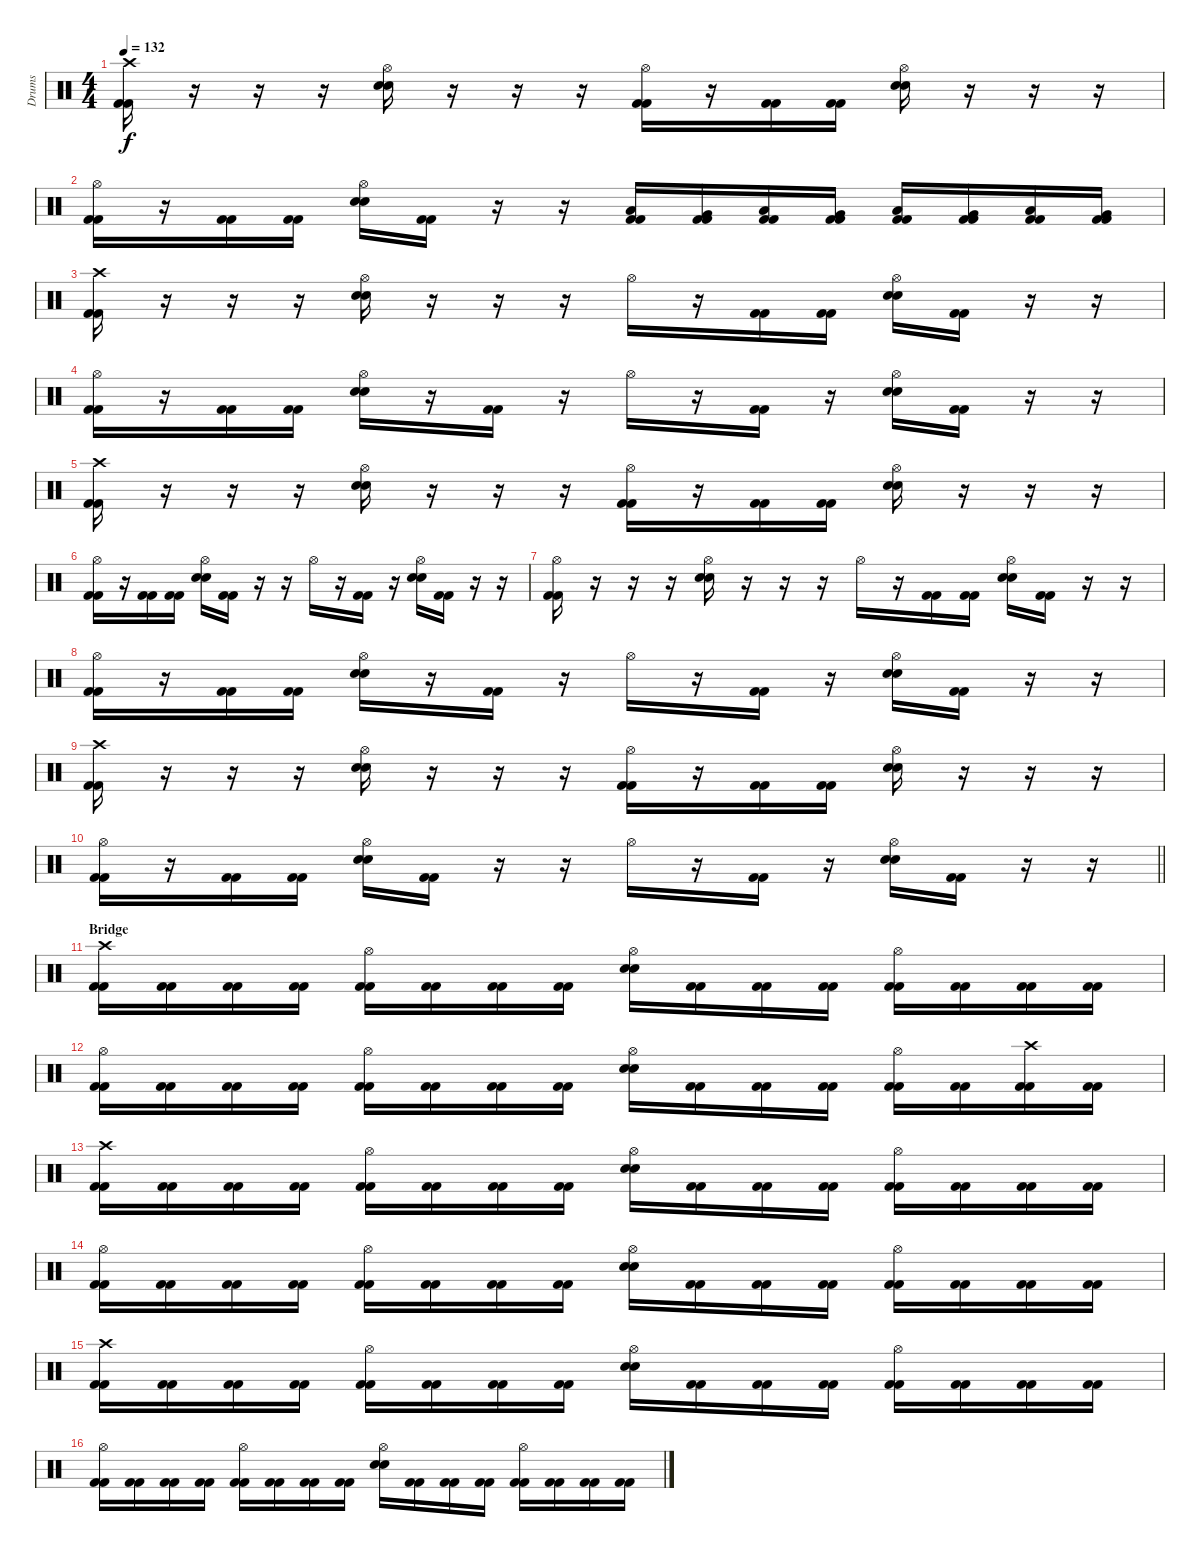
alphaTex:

\track ("Drums" "Drums") {instrument percussion}
\staff {score}
\articulation defaults
\ts (4 4)
\tempo 132
\clef neutral
\ks c
("Crash high (hit)" "Kick (hit) 2" "Kick (hit) 2").16{dy f} r.16 r.16 r.16 ("Hi-Hat (open)" "Snare (hit) 2" "Snare (hit) 2").16 r.16 r.16 r.16 ("Hi-Hat (open)" "Kick (hit) 2" "Kick (hit) 2").16 r.16 ("Kick (hit) 2" "Kick (hit) 2").16 ("Kick (hit) 2" "Kick (hit) 2").16 ("Hi-Hat (open)" "Snare (hit) 2" "Snare (hit) 2").16 r.16 r.16 r.16 |
("Hi-Hat (open)" "Kick (hit) 2" "Kick (hit) 2").16 r.16 ("Kick (hit) 2" "Kick (hit) 2").16 ("Kick (hit) 2" "Kick (hit) 2").16 ("Hi-Hat (open)" "Snare (hit) 2" "Snare (hit) 2").16 ("Kick (hit) 2" "Kick (hit) 2").16 r.16 r.16 ("Low Tom (hit)" "Kick (hit) 2" "Kick (hit) 2").16 ("Very Low Tom (hit)" "Kick (hit) 2" "Kick (hit) 2").16 ("Low Tom (hit)" "Kick (hit) 2" "Kick (hit) 2").16 ("Very Low Tom (hit)" "Kick (hit) 2" "Kick (hit) 2").16 ("Low Tom (hit)" "Kick (hit) 2" "Kick (hit) 2").16 ("Very Low Tom (hit)" "Kick (hit) 2" "Kick (hit) 2").16 ("Low Tom (hit)" "Kick (hit) 2" "Kick (hit) 2").16 ("Very Low Tom (hit)" "Kick (hit) 2" "Kick (hit) 2").16 |
("Crash high (hit)" "Kick (hit) 2" "Kick (hit) 2").16 r.16 r.16 r.16 ("Hi-Hat (open)" "Snare (hit) 2" "Snare (hit) 2").16 r.16 r.16 r.16 "Hi-Hat (open)".16 r.16 ("Kick (hit) 2" "Kick (hit) 2").16 ("Kick (hit) 2" "Kick (hit) 2").16 ("Hi-Hat (open)" "Snare (hit) 2" "Snare (hit) 2").16 ("Kick (hit) 2" "Kick (hit) 2").16 r.16 r.16 |
("Hi-Hat (open)" "Kick (hit) 2" "Kick (hit) 2").16 r.16 ("Kick (hit) 2" "Kick (hit) 2").16 ("Kick (hit) 2" "Kick (hit) 2").16 ("Hi-Hat (open)" "Snare (hit) 2" "Snare (hit) 2").16 r.16 ("Kick (hit) 2" "Kick (hit) 2").16 r.16 "Hi-Hat (open)".16 r.16 ("Kick (hit) 2" "Kick (hit) 2").16 r.16 ("Hi-Hat (open)" "Snare (hit) 2" "Snare (hit) 2").16 ("Kick (hit) 2" "Kick (hit) 2").16 r.16 r.16 |
("Crash high (hit)" "Kick (hit) 2" "Kick (hit) 2").16 r.16 r.16 r.16 ("Hi-Hat (open)" "Snare (hit) 2" "Snare (hit) 2").16 r.16 r.16 r.16 ("Hi-Hat (open)" "Kick (hit) 2" "Kick (hit) 2").16 r.16 ("Kick (hit) 2" "Kick (hit) 2").16 ("Kick (hit) 2" "Kick (hit) 2").16 ("Hi-Hat (open)" "Snare (hit) 2" "Snare (hit) 2").16 r.16 r.16 r.16 |
("Hi-Hat (open)" "Kick (hit) 2" "Kick (hit) 2").16 r.16 ("Kick (hit) 2" "Kick (hit) 2").16 ("Kick (hit) 2" "Kick (hit) 2").16 ("Hi-Hat (open)" "Snare (hit) 2" "Snare (hit) 2").16 ("Kick (hit) 2" "Kick (hit) 2").16 r.16 r.16 "Hi-Hat (open)".16 r.16 ("Kick (hit) 2" "Kick (hit) 2").16 r.16 ("Hi-Hat (open)" "Snare (hit) 2" "Snare (hit) 2").16 ("Kick (hit) 2" "Kick (hit) 2").16 r.16 r.16 |
("Hi-Hat (open)" "Kick (hit) 2" "Kick (hit) 2").16 r.16 r.16 r.16 ("Hi-Hat (open)" "Snare (hit) 2" "Snare (hit) 2").16 r.16 r.16 r.16 "Hi-Hat (open)".16 r.16 ("Kick (hit) 2" "Kick (hit) 2").16 ("Kick (hit) 2" "Kick (hit) 2").16 ("Hi-Hat (open)" "Snare (hit) 2" "Snare (hit) 2").16 ("Kick (hit) 2" "Kick (hit) 2").16 r.16 r.16 |
("Hi-Hat (open)" "Kick (hit) 2" "Kick (hit) 2").16 r.16 ("Kick (hit) 2" "Kick (hit) 2").16 ("Kick (hit) 2" "Kick (hit) 2").16 ("Hi-Hat (open)" "Snare (hit) 2" "Snare (hit) 2").16 r.16 ("Kick (hit) 2" "Kick (hit) 2").16 r.16 "Hi-Hat (open)".16 r.16 ("Kick (hit) 2" "Kick (hit) 2").16 r.16 ("Hi-Hat (open)" "Snare (hit) 2" "Snare (hit) 2").16 ("Kick (hit) 2" "Kick (hit) 2").16 r.16 r.16 |
("Crash high (hit)" "Kick (hit) 2" "Kick (hit) 2").16 r.16 r.16 r.16 ("Hi-Hat (open)" "Snare (hit) 2" "Snare (hit) 2").16 r.16 r.16 r.16 ("Hi-Hat (open)" "Kick (hit) 2" "Kick (hit) 2").16 r.16 ("Kick (hit) 2" "Kick (hit) 2").16 ("Kick (hit) 2" "Kick (hit) 2").16 ("Hi-Hat (open)" "Snare (hit) 2" "Snare (hit) 2").16 r.16 r.16 r.16 |
\barLineRight lightlight
("Hi-Hat (open)" "Kick (hit) 2" "Kick (hit) 2").16 r.16 ("Kick (hit) 2" "Kick (hit) 2").16 ("Kick (hit) 2" "Kick (hit) 2").16 ("Hi-Hat (open)" "Snare (hit) 2" "Snare (hit) 2").16 ("Kick (hit) 2" "Kick (hit) 2").16 r.16 r.16 "Hi-Hat (open)".16 r.16 ("Kick (hit) 2" "Kick (hit) 2").16 r.16 ("Hi-Hat (open)" "Snare (hit) 2" "Snare (hit) 2").16 ("Kick (hit) 2" "Kick (hit) 2").16 r.16 r.16 |
\section ("" "Bridge")
("Crash high (hit)" "Kick (hit) 2" "Kick (hit) 2").16 ("Kick (hit) 2" "Kick (hit) 2").16 ("Kick (hit) 2" "Kick (hit) 2").16 ("Kick (hit) 2" "Kick (hit) 2").16 ("Hi-Hat (open)" "Kick (hit) 2" "Kick (hit) 2").16 ("Kick (hit) 2" "Kick (hit) 2").16 ("Kick (hit) 2" "Kick (hit) 2").16 ("Kick (hit) 2" "Kick (hit) 2").16 ("Hi-Hat (open)" "Snare (hit) 2" "Snare (hit) 2").16 ("Kick (hit) 2" "Kick (hit) 2").16 ("Kick (hit) 2" "Kick (hit) 2").16 ("Kick (hit) 2" "Kick (hit) 2").16 ("Hi-Hat (open)" "Kick (hit) 2" "Kick (hit) 2").16 ("Kick (hit) 2" "Kick (hit) 2").16 ("Kick (hit) 2" "Kick (hit) 2").16 ("Kick (hit) 2" "Kick (hit) 2").16 |
("Hi-Hat (open)" "Kick (hit) 2" "Kick (hit) 2").16 ("Kick (hit) 2" "Kick (hit) 2").16 ("Kick (hit) 2" "Kick (hit) 2").16 ("Kick (hit) 2" "Kick (hit) 2").16 ("Hi-Hat (open)" "Kick (hit) 2" "Kick (hit) 2").16 ("Kick (hit) 2" "Kick (hit) 2").16 ("Kick (hit) 2" "Kick (hit) 2").16 ("Kick (hit) 2" "Kick (hit) 2").16 ("Hi-Hat (open)" "Snare (hit) 2" "Snare (hit) 2").16 ("Kick (hit) 2" "Kick (hit) 2").16 ("Kick (hit) 2" "Kick (hit) 2").16 ("Kick (hit) 2" "Kick (hit) 2").16 ("Hi-Hat (open)" "Kick (hit) 2" "Kick (hit) 2").16 ("Kick (hit) 2" "Kick (hit) 2").16 ("Crash high (hit)" "Kick (hit) 2" "Kick (hit) 2").16 ("Kick (hit) 2" "Kick (hit) 2").16 |
("Crash high (hit)" "Kick (hit) 2" "Kick (hit) 2").16 ("Kick (hit) 2" "Kick (hit) 2").16 ("Kick (hit) 2" "Kick (hit) 2").16 ("Kick (hit) 2" "Kick (hit) 2").16 ("Hi-Hat (open)" "Kick (hit) 2" "Kick (hit) 2").16 ("Kick (hit) 2" "Kick (hit) 2").16 ("Kick (hit) 2" "Kick (hit) 2").16 ("Kick (hit) 2" "Kick (hit) 2").16 ("Hi-Hat (open)" "Snare (hit) 2" "Snare (hit) 2").16 ("Kick (hit) 2" "Kick (hit) 2").16 ("Kick (hit) 2" "Kick (hit) 2").16 ("Kick (hit) 2" "Kick (hit) 2").16 ("Hi-Hat (open)" "Kick (hit) 2" "Kick (hit) 2").16 ("Kick (hit) 2" "Kick (hit) 2").16 ("Kick (hit) 2" "Kick (hit) 2").16 ("Kick (hit) 2" "Kick (hit) 2").16 |
("Hi-Hat (open)" "Kick (hit) 2" "Kick (hit) 2").16 ("Kick (hit) 2" "Kick (hit) 2").16 ("Kick (hit) 2" "Kick (hit) 2").16 ("Kick (hit) 2" "Kick (hit) 2").16 ("Hi-Hat (open)" "Kick (hit) 2" "Kick (hit) 2").16 ("Kick (hit) 2" "Kick (hit) 2").16 ("Kick (hit) 2" "Kick (hit) 2").16 ("Kick (hit) 2" "Kick (hit) 2").16 ("Hi-Hat (open)" "Snare (hit) 2" "Snare (hit) 2").16 ("Kick (hit) 2" "Kick (hit) 2").16 ("Kick (hit) 2" "Kick (hit) 2").16 ("Kick (hit) 2" "Kick (hit) 2").16 ("Hi-Hat (open)" "Kick (hit) 2" "Kick (hit) 2").16 ("Kick (hit) 2" "Kick (hit) 2").16 ("Kick (hit) 2" "Kick (hit) 2").16 ("Kick (hit) 2" "Kick (hit) 2").16 |
("Crash high (hit)" "Kick (hit) 2" "Kick (hit) 2").16 ("Kick (hit) 2" "Kick (hit) 2").16 ("Kick (hit) 2" "Kick (hit) 2").16 ("Kick (hit) 2" "Kick (hit) 2").16 ("Hi-Hat (open)" "Kick (hit) 2" "Kick (hit) 2").16 ("Kick (hit) 2" "Kick (hit) 2").16 ("Kick (hit) 2" "Kick (hit) 2").16 ("Kick (hit) 2" "Kick (hit) 2").16 ("Hi-Hat (open)" "Snare (hit) 2" "Snare (hit) 2").16 ("Kick (hit) 2" "Kick (hit) 2").16 ("Kick (hit) 2" "Kick (hit) 2").16 ("Kick (hit) 2" "Kick (hit) 2").16 ("Hi-Hat (open)" "Kick (hit) 2" "Kick (hit) 2").16 ("Kick (hit) 2" "Kick (hit) 2").16 ("Kick (hit) 2" "Kick (hit) 2").16 ("Kick (hit) 2" "Kick (hit) 2").16 |
("Hi-Hat (open)" "Kick (hit) 2" "Kick (hit) 2").16 ("Kick (hit) 2" "Kick (hit) 2").16 ("Kick (hit) 2" "Kick (hit) 2").16 ("Kick (hit) 2" "Kick (hit) 2").16 ("Hi-Hat (open)" "Kick (hit) 2" "Kick (hit) 2").16 ("Kick (hit) 2" "Kick (hit) 2").16 ("Kick (hit) 2" "Kick (hit) 2").16 ("Kick (hit) 2" "Kick (hit) 2").16 ("Hi-Hat (open)" "Snare (hit) 2" "Snare (hit) 2").16 ("Kick (hit) 2" "Kick (hit) 2").16 ("Kick (hit) 2" "Kick (hit) 2").16 ("Kick (hit) 2" "Kick (hit) 2").16 ("Hi-Hat (open)" "Kick (hit) 2" "Kick (hit) 2").16 ("Kick (hit) 2" "Kick (hit) 2").16 ("Kick (hit) 2" "Kick (hit) 2").16 ("Kick (hit) 2" "Kick (hit) 2").16
